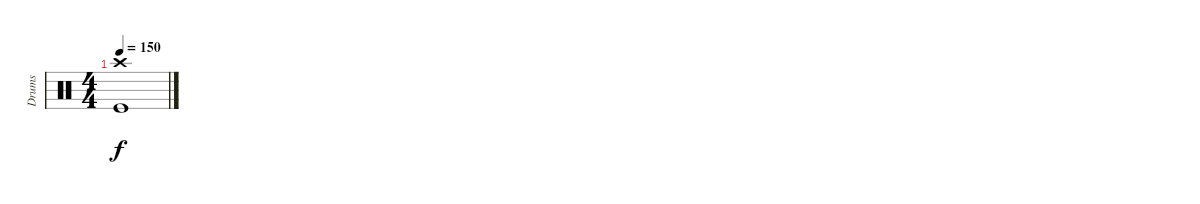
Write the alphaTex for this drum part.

\track ("Drums" "Drums") {instrument percussion}
\staff {score}
\articulation defaults
\ts (4 4)
\tempo 150
\clef neutral
\ks c
("Crash high (hit)" "Kick (hit)").1{dy f}
